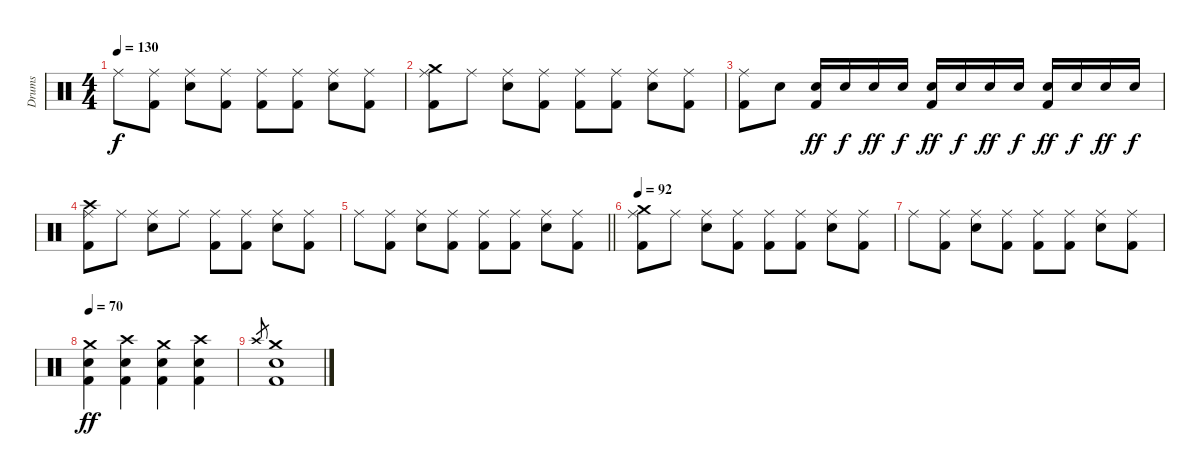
\track ("Drums" "Drums") {instrument percussion}
\staff {score}
\articulation defaults
\ts (4 4)
\tempo 130
\clef neutral
\ks c "Ride (middle)".8{dy f}
("Ride (middle)" "Kick (hit) 2").8 ("Ride (middle)" "Electric Snare (hit)").8 ("Ride (middle)" "Kick (hit) 2").8 ("Ride (middle)" "Kick (hit) 2").8 ("Ride (middle)" "Kick (hit) 2").8 ("Ride (middle)" "Electric Snare (hit)").8 ("Ride (middle)" "Kick (hit) 2").8 |
("Ride (middle)" "Crash medium (hit)" "Kick (hit) 2").8 "Ride (middle)".8 ("Ride (middle)" "Electric Snare (hit)").8 ("Ride (middle)" "Kick (hit) 2").8 ("Ride (middle)" "Kick (hit) 2").8 ("Ride (middle)" "Kick (hit) 2").8 ("Ride (middle)" "Electric Snare (hit)").8 ("Ride (middle)" "Kick (hit) 2").8 |
("Ride (middle)" "Kick (hit) 2").8 "Electric Snare (hit)".8 ("Electric Snare (hit)" "Kick (hit) 2").16{dy ff} "Electric Snare (hit)".16{dy f} "Electric Snare (hit)".16{dy ff} "Electric Snare (hit)".16{dy f} ("Electric Snare (hit)" "Kick (hit) 2").16{dy ff} "Electric Snare (hit)".16{dy f} "Electric Snare (hit)".16{dy ff} "Electric Snare (hit)".16{dy f} ("Electric Snare (hit)" "Kick (hit) 2").16{dy ff} "Electric Snare (hit)".16{dy f} "Electric Snare (hit)".16{dy ff} "Electric Snare (hit)".16{dy f} |
("Ride (middle)" "Crash high (hit)" "Kick (hit) 2").8 "Ride (middle)".8 ("Ride (middle)" "Electric Snare (hit)").8 "Ride (middle)".8 ("Ride (middle)" "Kick (hit) 2").8 ("Ride (middle)" "Kick (hit) 2").8 ("Ride (middle)" "Electric Snare (hit)").8 ("Ride (middle)" "Kick (hit) 2").8 |
\barLineRight lightlight "Ride (middle)".8
("Ride (middle)" "Kick (hit) 2").8 ("Ride (middle)" "Electric Snare (hit)").8 ("Ride (middle)" "Kick (hit) 2").8 ("Ride (middle)" "Kick (hit) 2").8 ("Ride (middle)" "Kick (hit) 2").8 ("Ride (middle)" "Electric Snare (hit)").8 ("Ride (middle)" "Kick (hit) 2").8 |
\tempo 92
("Ride (middle)" "Crash medium (hit)" "Kick (hit) 2").8 "Ride (middle)".8 ("Ride (middle)" "Electric Snare (hit)").8 ("Ride (middle)" "Kick (hit) 2").8 ("Ride (middle)" "Kick (hit) 2").8 ("Ride (middle)" "Kick (hit) 2").8 ("Ride (middle)" "Electric Snare (hit)").8 ("Ride (middle)" "Kick (hit) 2").8 |
"Ride (middle)".8 ("Ride (middle)" "Kick (hit) 2").8 ("Ride (middle)" "Electric Snare (hit)").8 ("Ride (middle)" "Kick (hit) 2").8 ("Ride (middle)" "Kick (hit) 2").8 ("Ride (middle)" "Kick (hit) 2").8 ("Ride (middle)" "Electric Snare (hit)").8 ("Ride (middle)" "Kick (hit) 2").8 |
\tempo 70
("Crash medium (hit)" "Electric Snare (hit)" "Kick (hit) 2").4{dy ff} ("Crash high (hit)" "Electric Snare (hit)" "Kick (hit) 2").4 ("Crash medium (hit)" "Electric Snare (hit)" "Kick (hit) 2").4 ("Crash high (hit)" "Electric Snare (hit)" "Kick (hit) 2").4 |
"Crash high (hit)".8{gr} ("Crash medium (hit)" "Electric Snare (hit)" "Kick (hit) 2").1
